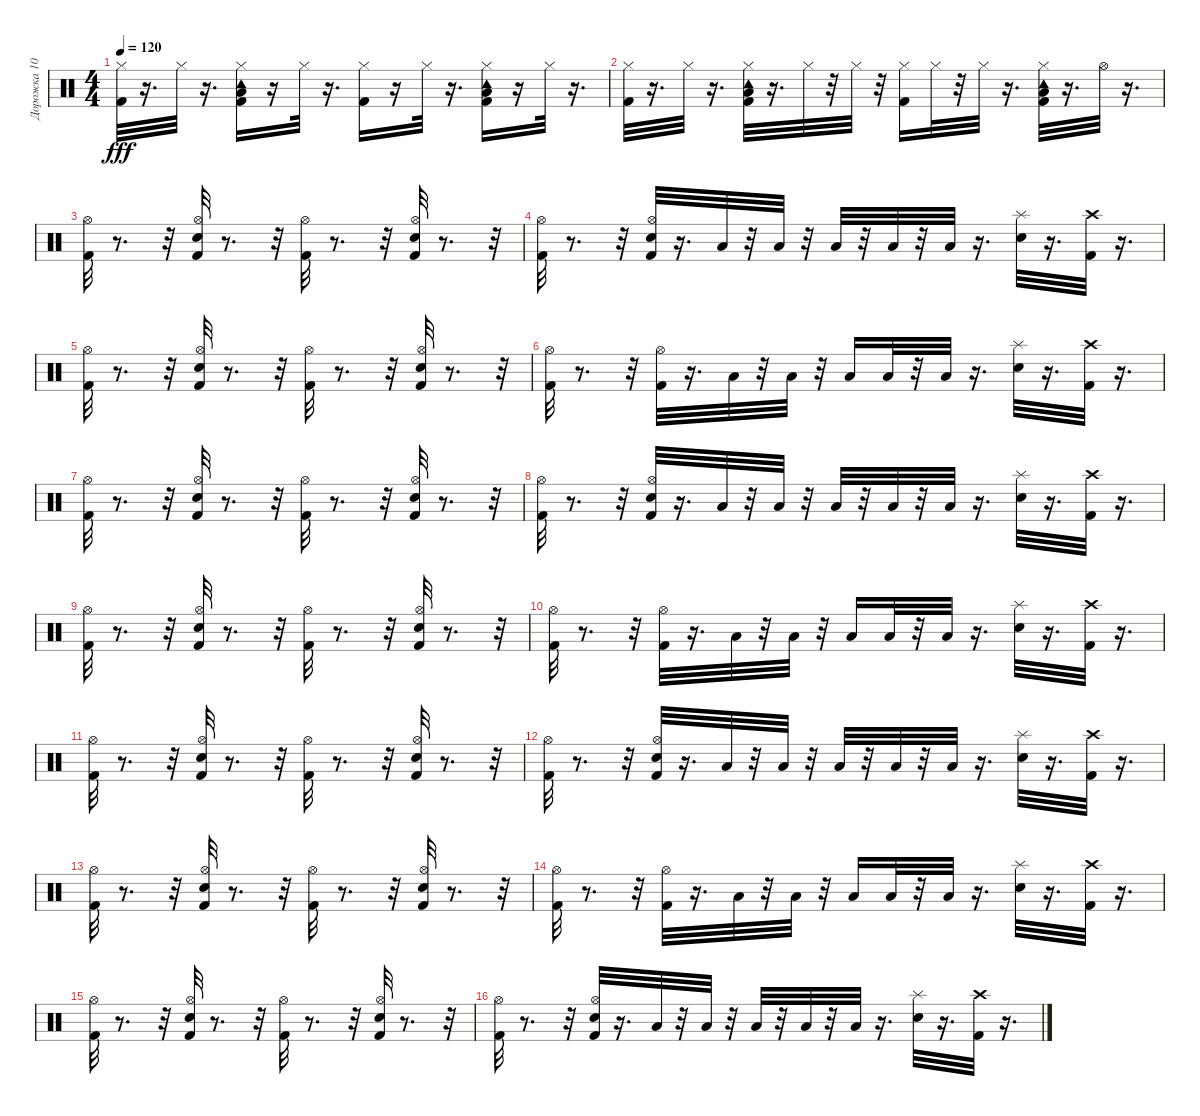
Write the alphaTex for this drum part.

\track ("Дорожка 10" "Дорожка 10") {instrument percussion}
\staff {score}
\articulation defaults
\ts (4 4)
\tempo 120
\clef neutral
\ks c
("Kick (hit) 2" "Hi-Hat (closed)").32{dy fff} r.16{d} "Hi-Hat (closed)".32 r.16{d} ("Low Floor Tom (hit)" "Tambourine (hit)" "Kick (hit) 2" "Hi-Hat (closed)").16 r.16 "Hi-Hat (closed)".32 r.16{d} ("Kick (hit) 2" "Hi-Hat (closed)").16 r.16 "Hi-Hat (closed)".32 r.16{d} ("Low Floor Tom (hit)" "Tambourine (hit)" "Kick (hit) 2" "Hi-Hat (closed)").16 r.16 "Hi-Hat (closed)".32 r.16{d} |
("Kick (hit) 2" "Hi-Hat (closed)").32 r.16{d} "Hi-Hat (closed)".32 r.16{d} ("Low Floor Tom (hit)" "Tambourine (hit)" "Kick (hit) 2" "Hi-Hat (closed)").32 r.16{d} "Hi-Hat (closed)".32 r.32 "Hi-Hat (closed)".32 r.32 ("Kick (hit) 2" "Hi-Hat (closed)").16 "Hi-Hat (closed)".32 r.32 "Hi-Hat (closed)".32 r.16{d} ("Tambourine (hit)" "Kick (hit) 2" "Hi-Hat (closed)" "Low Floor Tom (hit)").32 r.16{d} "Hi-Hat (open)".32 r.16{d} |
("Hi-Hat (open)" "Kick (hit) 2").32 r.8{d} r.32 ("Hi-Hat (open)" "Electric Snare (hit)" "Kick (hit) 2").32 r.8{d} r.32 ("Hi-Hat (open)" "Kick (hit) 2").32 r.8{d} r.32 ("Hi-Hat (open)" "Electric Snare (hit)" "Kick (hit) 2").32 r.8{d} r.32 |
("Kick (hit) 2" "Hi-Hat (open)").32 r.8{d} r.32 ("Hi-Hat (open)" "Electric Snare (hit)" "Kick (hit) 2").32 r.16{d} "Low Floor Tom (hit)".32 r.32 "Low Floor Tom (hit)".32 r.32 "Low Floor Tom (hit)".32 r.32 "Low Floor Tom (hit)".32 r.32 "Low Floor Tom (hit)".32 r.16{d} ("Electric Snare (hit)" "Splash (hit)").32 r.16{d} ("Kick (hit) 2" "Crash high (hit)").32 r.16{d} |
("Hi-Hat (open)" "Kick (hit) 2").32 r.8{d} r.32 ("Hi-Hat (open)" "Electric Snare (hit)" "Kick (hit) 2").32 r.8{d} r.32 ("Hi-Hat (open)" "Kick (hit) 2").32 r.8{d} r.32 ("Hi-Hat (open)" "Electric Snare (hit)" "Kick (hit) 2").32 r.8{d} r.32 |
("Hi-Hat (open)" "Kick (hit) 2").32 r.8{d} r.32 ("Hi-Hat (open)" "Kick (hit) 2").32 r.16{d} "Low Floor Tom (hit)".32 r.32 "Low Floor Tom (hit)".32 r.32 "Low Floor Tom (hit)".16 "Low Floor Tom (hit)".32 r.32 "Low Floor Tom (hit)".32 r.16{d} ("Splash (hit)" "Electric Snare (hit)").32 r.16{d} ("Kick (hit) 2" "Crash high (hit)").32 r.16{d} |
("Hi-Hat (open)" "Kick (hit) 2").32 r.8{d} r.32 ("Hi-Hat (open)" "Electric Snare (hit)" "Kick (hit) 2").32 r.8{d} r.32 ("Hi-Hat (open)" "Kick (hit) 2").32 r.8{d} r.32 ("Hi-Hat (open)" "Electric Snare (hit)" "Kick (hit) 2").32 r.8{d} r.32 |
("Kick (hit) 2" "Hi-Hat (open)").32 r.8{d} r.32 ("Hi-Hat (open)" "Electric Snare (hit)" "Kick (hit) 2").32 r.16{d} "Low Floor Tom (hit)".32 r.32 "Low Floor Tom (hit)".32 r.32 "Low Floor Tom (hit)".32 r.32 "Low Floor Tom (hit)".32 r.32 "Low Floor Tom (hit)".32 r.16{d} ("Electric Snare (hit)" "Splash (hit)").32 r.16{d} ("Kick (hit) 2" "Crash high (hit)").32 r.16{d} |
("Hi-Hat (open)" "Kick (hit) 2").32 r.8{d} r.32 ("Hi-Hat (open)" "Electric Snare (hit)" "Kick (hit) 2").32 r.8{d} r.32 ("Hi-Hat (open)" "Kick (hit) 2").32 r.8{d} r.32 ("Hi-Hat (open)" "Electric Snare (hit)" "Kick (hit) 2").32 r.8{d} r.32 |
("Hi-Hat (open)" "Kick (hit) 2").32 r.8{d} r.32 ("Hi-Hat (open)" "Kick (hit) 2").32 r.16{d} "Low Floor Tom (hit)".32 r.32 "Low Floor Tom (hit)".32 r.32 "Low Floor Tom (hit)".16 "Low Floor Tom (hit)".32 r.32 "Low Floor Tom (hit)".32 r.16{d} ("Splash (hit)" "Electric Snare (hit)").32 r.16{d} ("Kick (hit) 2" "Crash high (hit)").32 r.16{d} |
("Hi-Hat (open)" "Kick (hit) 2").32 r.8{d} r.32 ("Hi-Hat (open)" "Electric Snare (hit)" "Kick (hit) 2").32 r.8{d} r.32 ("Hi-Hat (open)" "Kick (hit) 2").32 r.8{d} r.32 ("Hi-Hat (open)" "Electric Snare (hit)" "Kick (hit) 2").32 r.8{d} r.32 |
("Kick (hit) 2" "Hi-Hat (open)").32 r.8{d} r.32 ("Hi-Hat (open)" "Electric Snare (hit)" "Kick (hit) 2").32 r.16{d} "Low Floor Tom (hit)".32 r.32 "Low Floor Tom (hit)".32 r.32 "Low Floor Tom (hit)".32 r.32 "Low Floor Tom (hit)".32 r.32 "Low Floor Tom (hit)".32 r.16{d} ("Electric Snare (hit)" "Splash (hit)").32 r.16{d} ("Kick (hit) 2" "Crash high (hit)").32 r.16{d} |
("Hi-Hat (open)" "Kick (hit) 2").32 r.8{d} r.32 ("Hi-Hat (open)" "Electric Snare (hit)" "Kick (hit) 2").32 r.8{d} r.32 ("Hi-Hat (open)" "Kick (hit) 2").32 r.8{d} r.32 ("Hi-Hat (open)" "Electric Snare (hit)" "Kick (hit) 2").32 r.8{d} r.32 |
("Hi-Hat (open)" "Kick (hit) 2").32 r.8{d} r.32 ("Hi-Hat (open)" "Kick (hit) 2").32 r.16{d} "Low Floor Tom (hit)".32 r.32 "Low Floor Tom (hit)".32 r.32 "Low Floor Tom (hit)".16 "Low Floor Tom (hit)".32 r.32 "Low Floor Tom (hit)".32 r.16{d} ("Splash (hit)" "Electric Snare (hit)").32 r.16{d} ("Kick (hit) 2" "Crash high (hit)").32 r.16{d} |
("Hi-Hat (open)" "Kick (hit) 2").32 r.8{d} r.32 ("Hi-Hat (open)" "Electric Snare (hit)" "Kick (hit) 2").32 r.8{d} r.32 ("Hi-Hat (open)" "Kick (hit) 2").32 r.8{d} r.32 ("Hi-Hat (open)" "Electric Snare (hit)" "Kick (hit) 2").32 r.8{d} r.32 |
("Kick (hit) 2" "Hi-Hat (open)").32 r.8{d} r.32 ("Hi-Hat (open)" "Electric Snare (hit)" "Kick (hit) 2").32 r.16{d} "Low Floor Tom (hit)".32 r.32 "Low Floor Tom (hit)".32 r.32 "Low Floor Tom (hit)".32 r.32 "Low Floor Tom (hit)".32 r.32 "Low Floor Tom (hit)".32 r.16{d} ("Electric Snare (hit)" "Splash (hit)").32 r.16{d} ("Kick (hit) 2" "Crash high (hit)").32 r.16{d}
